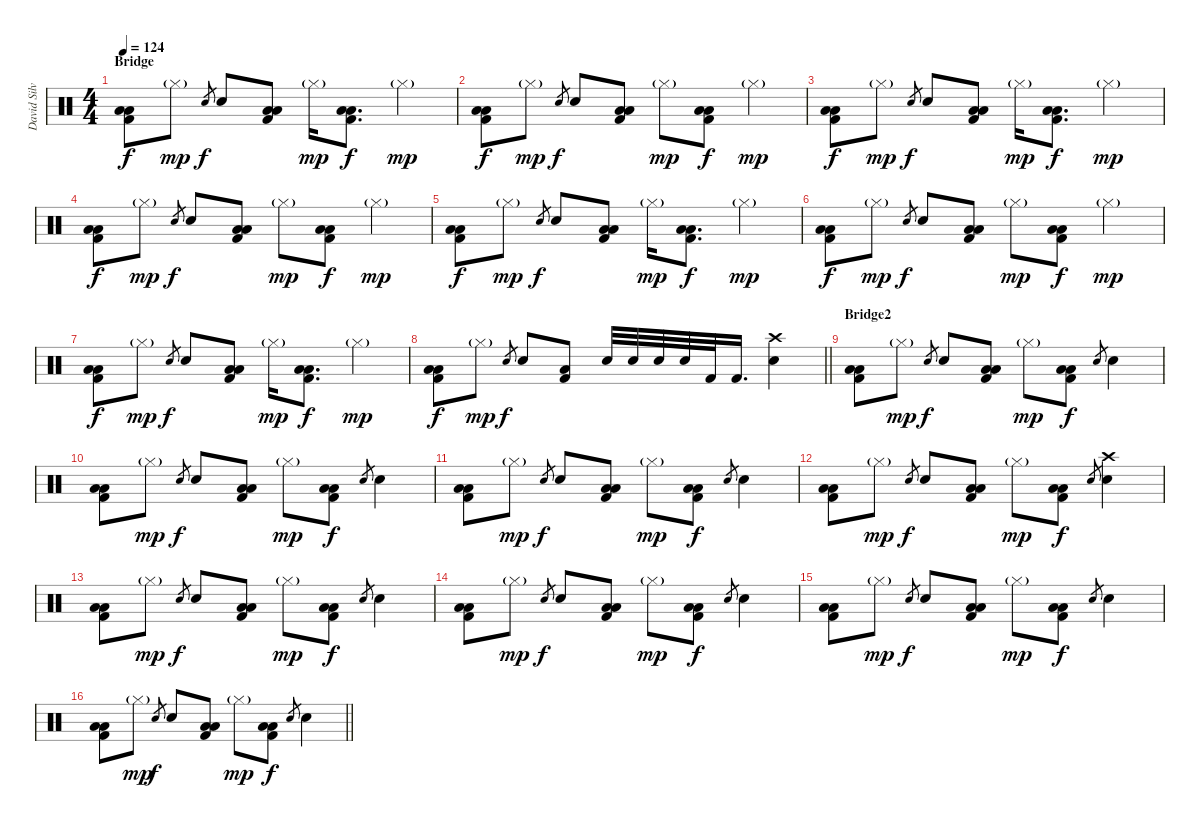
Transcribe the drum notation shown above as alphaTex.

\track ("David Silvera" "David Silv") {instrument percussion}
\staff {score}
\articulation defaults
\ts (4 4)
\section ("" "Bridge")
\tempo 124
\clef neutral
\ks c
("Low Floor Tom (hit)" "Low Tom (hit)" "Kick (hit) 2").8{dy f} "Hi-Hat (closed)"{g}.8{dy mp} "Electric Snare (hit)".8{gr dy f} "Electric Snare (hit)".8 ("Low Floor Tom (hit)" "Low Tom (hit)" "Kick (hit) 2").8 "Hi-Hat (closed)"{g}.16{dy mp} ("Low Floor Tom (hit)" "Low Tom (hit)" "Kick (hit) 2").8{d dy f} "Hi-Hat (closed)"{g}.4{dy mp} |
("Low Floor Tom (hit)" "Low Tom (hit)" "Kick (hit) 2").8{dy f} "Hi-Hat (closed)"{g}.8{dy mp} "Electric Snare (hit)".8{gr dy f} "Electric Snare (hit)".8 ("Low Floor Tom (hit)" "Low Tom (hit)" "Kick (hit) 2").8 "Hi-Hat (closed)"{g}.8{dy mp} ("Low Floor Tom (hit)" "Low Tom (hit)" "Kick (hit) 2").8{dy f} "Hi-Hat (closed)"{g}.4{dy mp} |
("Low Floor Tom (hit)" "Low Tom (hit)" "Kick (hit) 2").8{dy f} "Hi-Hat (closed)"{g}.8{dy mp} "Electric Snare (hit)".8{gr dy f} "Electric Snare (hit)".8 ("Low Floor Tom (hit)" "Low Tom (hit)" "Kick (hit) 2").8 "Hi-Hat (closed)"{g}.16{dy mp} ("Low Floor Tom (hit)" "Low Tom (hit)" "Kick (hit) 2").8{d dy f} "Hi-Hat (closed)"{g}.4{dy mp} |
("Low Floor Tom (hit)" "Low Tom (hit)" "Kick (hit) 2").8{dy f} "Hi-Hat (closed)"{g}.8{dy mp} "Electric Snare (hit)".8{gr dy f} "Electric Snare (hit)".8 ("Low Floor Tom (hit)" "Low Tom (hit)" "Kick (hit) 2").8 "Hi-Hat (closed)"{g}.8{dy mp} ("Low Floor Tom (hit)" "Low Tom (hit)" "Kick (hit) 2").8{dy f} "Hi-Hat (closed)"{g}.4{dy mp} |
("Low Floor Tom (hit)" "Low Tom (hit)" "Kick (hit) 2").8{dy f} "Hi-Hat (closed)"{g}.8{dy mp} "Electric Snare (hit)".8{gr dy f} "Electric Snare (hit)".8 ("Low Floor Tom (hit)" "Low Tom (hit)" "Kick (hit) 2").8 "Hi-Hat (closed)"{g}.16{dy mp} ("Low Floor Tom (hit)" "Low Tom (hit)" "Kick (hit) 2").8{d dy f} "Hi-Hat (closed)"{g}.4{dy mp} |
("Low Floor Tom (hit)" "Low Tom (hit)" "Kick (hit) 2").8{dy f} "Hi-Hat (closed)"{g}.8{dy mp} "Electric Snare (hit)".8{gr dy f} "Electric Snare (hit)".8 ("Low Floor Tom (hit)" "Low Tom (hit)" "Kick (hit) 2").8 "Hi-Hat (closed)"{g}.8{dy mp} ("Low Floor Tom (hit)" "Low Tom (hit)" "Kick (hit) 2").8{dy f} "Hi-Hat (closed)"{g}.4{dy mp} |
("Low Floor Tom (hit)" "Low Tom (hit)" "Kick (hit) 2").8{dy f} "Hi-Hat (closed)"{g}.8{dy mp} "Electric Snare (hit)".8{gr dy f} "Electric Snare (hit)".8 ("Low Floor Tom (hit)" "Low Tom (hit)" "Kick (hit) 2").8 "Hi-Hat (closed)"{g}.16{dy mp} ("Low Floor Tom (hit)" "Low Tom (hit)" "Kick (hit) 2").8{d dy f} "Hi-Hat (closed)"{g}.4{dy mp} |
\barLineRight lightlight
("Low Floor Tom (hit)" "Low Tom (hit)" "Kick (hit) 2").8{dy f} "Hi-Hat (closed)"{g}.8{dy mp} "Electric Snare (hit)".8{gr dy f} "Electric Snare (hit)".8 ("Low Tom (hit)" "Kick (hit) 2").8 "Electric Snare (hit)".32 "Electric Snare (hit)".32 "Electric Snare (hit)".32 "Electric Snare (hit)".32 "Kick (hit) 2".32 "Kick (hit) 2".16{d} ("Crash high (hit)" "Electric Snare (hit)").4 |
\section ("" "Bridge2")
("Low Floor Tom (hit)" "Low Tom (hit)" "Kick (hit) 2").8 "Hi-Hat (closed)"{g}.8{dy mp} "Electric Snare (hit)".8{gr dy f} "Electric Snare (hit)".8 ("Low Floor Tom (hit)" "Low Tom (hit)" "Kick (hit) 2").8 "Hi-Hat (closed)"{g}.8{dy mp} ("Low Floor Tom (hit)" "Low Tom (hit)" "Kick (hit) 2").8{dy f} "Electric Snare (hit)".8{gr} "Electric Snare (hit)".4 |
("Low Floor Tom (hit)" "Low Tom (hit)" "Kick (hit) 2").8 "Hi-Hat (closed)"{g}.8{dy mp} "Electric Snare (hit)".8{gr dy f} "Electric Snare (hit)".8 ("Low Floor Tom (hit)" "Low Tom (hit)" "Kick (hit) 2").8 "Hi-Hat (closed)"{g}.8{dy mp} ("Low Floor Tom (hit)" "Low Tom (hit)" "Kick (hit) 2").8{dy f} "Electric Snare (hit)".8{gr} "Electric Snare (hit)".4 |
("Low Floor Tom (hit)" "Low Tom (hit)" "Kick (hit) 2").8 "Hi-Hat (closed)"{g}.8{dy mp} "Electric Snare (hit)".8{gr dy f} "Electric Snare (hit)".8 ("Low Floor Tom (hit)" "Low Tom (hit)" "Kick (hit) 2").8 "Hi-Hat (closed)"{g}.8{dy mp} ("Low Floor Tom (hit)" "Low Tom (hit)" "Kick (hit) 2").8{dy f} "Electric Snare (hit)".8{gr} "Electric Snare (hit)".4 |
("Low Floor Tom (hit)" "Low Tom (hit)" "Kick (hit) 2").8 "Hi-Hat (closed)"{g}.8{dy mp} "Electric Snare (hit)".8{gr dy f} "Electric Snare (hit)".8 ("Low Floor Tom (hit)" "Low Tom (hit)" "Kick (hit) 2").8 "Hi-Hat (closed)"{g}.8{dy mp} ("Low Floor Tom (hit)" "Low Tom (hit)" "Kick (hit) 2").8{dy f} "Electric Snare (hit)".8{gr} ("Crash high (hit)" "Electric Snare (hit)").4 |
("Low Floor Tom (hit)" "Low Tom (hit)" "Kick (hit) 2").8 "Hi-Hat (closed)"{g}.8{dy mp} "Electric Snare (hit)".8{gr dy f} "Electric Snare (hit)".8 ("Low Floor Tom (hit)" "Low Tom (hit)" "Kick (hit) 2").8 "Hi-Hat (closed)"{g}.8{dy mp} ("Low Floor Tom (hit)" "Low Tom (hit)" "Kick (hit) 2").8{dy f} "Electric Snare (hit)".8{gr} "Electric Snare (hit)".4 |
("Low Floor Tom (hit)" "Low Tom (hit)" "Kick (hit) 2").8 "Hi-Hat (closed)"{g}.8{dy mp} "Electric Snare (hit)".8{gr dy f} "Electric Snare (hit)".8 ("Low Floor Tom (hit)" "Low Tom (hit)" "Kick (hit) 2").8 "Hi-Hat (closed)"{g}.8{dy mp} ("Low Floor Tom (hit)" "Low Tom (hit)" "Kick (hit) 2").8{dy f} "Electric Snare (hit)".8{gr} "Electric Snare (hit)".4 |
("Low Floor Tom (hit)" "Low Tom (hit)" "Kick (hit) 2").8 "Hi-Hat (closed)"{g}.8{dy mp} "Electric Snare (hit)".8{gr dy f} "Electric Snare (hit)".8 ("Low Floor Tom (hit)" "Low Tom (hit)" "Kick (hit) 2").8 "Hi-Hat (closed)"{g}.8{dy mp} ("Low Floor Tom (hit)" "Low Tom (hit)" "Kick (hit) 2").8{dy f} "Electric Snare (hit)".8{gr} "Electric Snare (hit)".4 |
\barLineRight lightlight
("Low Floor Tom (hit)" "Low Tom (hit)" "Kick (hit) 2").8 "Hi-Hat (closed)"{g}.8{dy mp} "Electric Snare (hit)".8{gr dy f} "Electric Snare (hit)".8 ("Low Floor Tom (hit)" "Low Tom (hit)" "Kick (hit) 2").8 "Hi-Hat (closed)"{g}.8{dy mp} ("Low Floor Tom (hit)" "Low Tom (hit)" "Kick (hit) 2").8{dy f} "Electric Snare (hit)".8{gr} "Electric Snare (hit)".4
